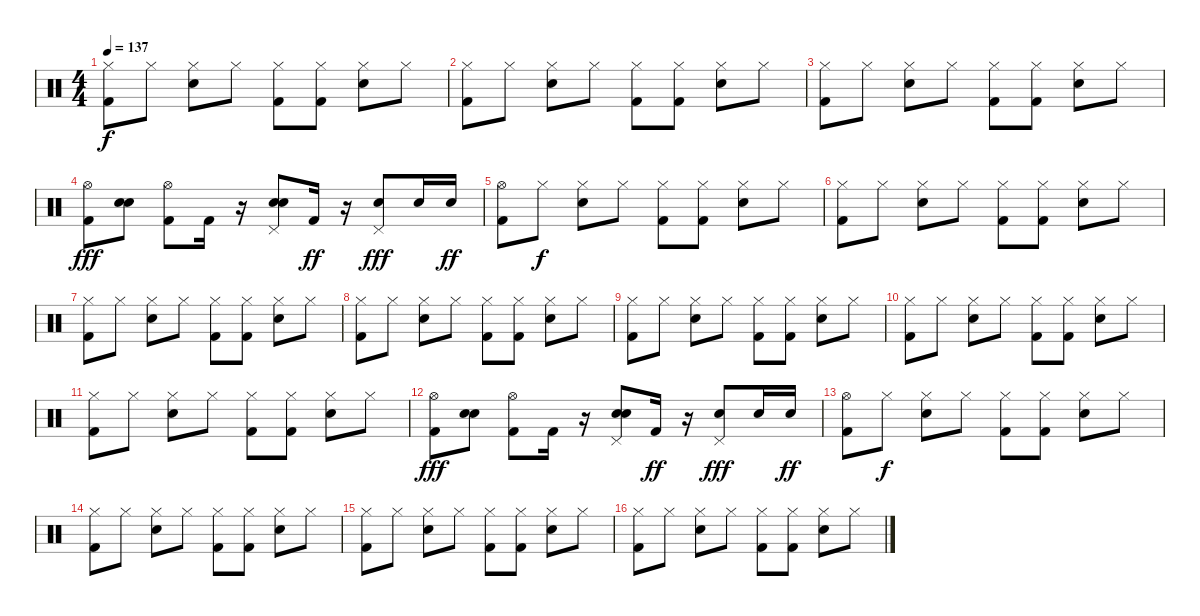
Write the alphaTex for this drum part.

\track "" {instrument percussion}
\staff {score}
\articulation defaults
\ts (4 4)
\tempo 137
\clef neutral
\ks c
("Kick (hit) 2" "Hi-Hat (closed)").8{dy f} "Hi-Hat (closed)".8 ("Hi-Hat (closed)" "Electric Snare (hit)").8 "Hi-Hat (closed)".8 ("Kick (hit) 2" "Hi-Hat (closed)").8 ("Kick (hit) 2" "Hi-Hat (closed)").8 ("Electric Snare (hit)" "Hi-Hat (closed)").8 "Hi-Hat (closed)".8 |
("Kick (hit) 2" "Hi-Hat (closed)").8 "Hi-Hat (closed)".8 ("Hi-Hat (closed)" "Electric Snare (hit)").8 "Hi-Hat (closed)".8 ("Kick (hit) 2" "Hi-Hat (closed)").8 ("Kick (hit) 2" "Hi-Hat (closed)").8 ("Electric Snare (hit)" "Hi-Hat (closed)").8 "Hi-Hat (closed)".8 |
("Kick (hit) 2" "Hi-Hat (closed)").8 "Hi-Hat (closed)".8 ("Hi-Hat (closed)" "Electric Snare (hit)").8 "Hi-Hat (closed)".8 ("Kick (hit) 2" "Hi-Hat (closed)").8 ("Kick (hit) 2" "Hi-Hat (closed)").8 ("Electric Snare (hit)" "Hi-Hat (closed)").8 "Hi-Hat (closed)".8 |
("Hi-Hat (open)" "Kick (hit) 2").8{dy fff} ("Electric Snare (hit)" "Electric Snare (hit)").8 ("Hi-Hat (open)" "Kick (hit) 2").8 "Kick (hit) 2".16 r.16 ("Electric Snare (hit)" "Pedal Hi-Hat (hit)" "Electric Snare (hit)").8 "Kick (hit) 2".16{dy ff} r.16 ("Pedal Hi-Hat (hit)" "Electric Snare (hit)").8{dy fff} "Electric Snare (hit)".16 "Electric Snare (hit)".16{dy ff} |
("Kick (hit) 2" "Hi-Hat (open)").8 "Hi-Hat (closed)".8{dy f} ("Hi-Hat (closed)" "Electric Snare (hit)").8 "Hi-Hat (closed)".8 ("Kick (hit) 2" "Hi-Hat (closed)").8 ("Kick (hit) 2" "Hi-Hat (closed)").8 ("Electric Snare (hit)" "Hi-Hat (closed)").8 "Hi-Hat (closed)".8 |
("Kick (hit) 2" "Hi-Hat (closed)").8 "Hi-Hat (closed)".8 ("Hi-Hat (closed)" "Electric Snare (hit)").8 "Hi-Hat (closed)".8 ("Kick (hit) 2" "Hi-Hat (closed)").8 ("Kick (hit) 2" "Hi-Hat (closed)").8 ("Electric Snare (hit)" "Hi-Hat (closed)").8 "Hi-Hat (closed)".8 |
("Kick (hit) 2" "Hi-Hat (closed)").8 "Hi-Hat (closed)".8 ("Hi-Hat (closed)" "Electric Snare (hit)").8 "Hi-Hat (closed)".8 ("Kick (hit) 2" "Hi-Hat (closed)").8 ("Kick (hit) 2" "Hi-Hat (closed)").8 ("Electric Snare (hit)" "Hi-Hat (closed)").8 "Hi-Hat (closed)".8 |
("Kick (hit) 2" "Hi-Hat (closed)").8 "Hi-Hat (closed)".8 ("Hi-Hat (closed)" "Electric Snare (hit)").8 "Hi-Hat (closed)".8 ("Kick (hit) 2" "Hi-Hat (closed)").8 ("Kick (hit) 2" "Hi-Hat (closed)").8 ("Electric Snare (hit)" "Hi-Hat (closed)").8 "Hi-Hat (closed)".8 |
("Kick (hit) 2" "Hi-Hat (closed)").8 "Hi-Hat (closed)".8 ("Hi-Hat (closed)" "Electric Snare (hit)").8 "Hi-Hat (closed)".8 ("Kick (hit) 2" "Hi-Hat (closed)").8 ("Kick (hit) 2" "Hi-Hat (closed)").8 ("Electric Snare (hit)" "Hi-Hat (closed)").8 "Hi-Hat (closed)".8 |
("Kick (hit) 2" "Hi-Hat (closed)").8 "Hi-Hat (closed)".8 ("Hi-Hat (closed)" "Electric Snare (hit)").8 "Hi-Hat (closed)".8 ("Kick (hit) 2" "Hi-Hat (closed)").8 ("Kick (hit) 2" "Hi-Hat (closed)").8 ("Electric Snare (hit)" "Hi-Hat (closed)").8 "Hi-Hat (closed)".8 |
("Kick (hit) 2" "Hi-Hat (closed)").8 "Hi-Hat (closed)".8 ("Hi-Hat (closed)" "Electric Snare (hit)").8 "Hi-Hat (closed)".8 ("Kick (hit) 2" "Hi-Hat (closed)").8 ("Kick (hit) 2" "Hi-Hat (closed)").8 ("Electric Snare (hit)" "Hi-Hat (closed)").8 "Hi-Hat (closed)".8 |
("Hi-Hat (open)" "Kick (hit) 2").8{dy fff} ("Electric Snare (hit)" "Electric Snare (hit)").8 ("Hi-Hat (open)" "Kick (hit) 2").8 "Kick (hit) 2".16 r.16 ("Electric Snare (hit)" "Pedal Hi-Hat (hit)" "Electric Snare (hit)").8 "Kick (hit) 2".16{dy ff} r.16 ("Pedal Hi-Hat (hit)" "Electric Snare (hit)").8{dy fff} "Electric Snare (hit)".16 "Electric Snare (hit)".16{dy ff} |
("Kick (hit) 2" "Hi-Hat (open)").8 "Hi-Hat (closed)".8{dy f} ("Hi-Hat (closed)" "Electric Snare (hit)").8 "Hi-Hat (closed)".8 ("Kick (hit) 2" "Hi-Hat (closed)").8 ("Kick (hit) 2" "Hi-Hat (closed)").8 ("Electric Snare (hit)" "Hi-Hat (closed)").8 "Hi-Hat (closed)".8 |
("Kick (hit) 2" "Hi-Hat (closed)").8 "Hi-Hat (closed)".8 ("Hi-Hat (closed)" "Electric Snare (hit)").8 "Hi-Hat (closed)".8 ("Kick (hit) 2" "Hi-Hat (closed)").8 ("Kick (hit) 2" "Hi-Hat (closed)").8 ("Electric Snare (hit)" "Hi-Hat (closed)").8 "Hi-Hat (closed)".8 |
("Kick (hit) 2" "Hi-Hat (closed)").8 "Hi-Hat (closed)".8 ("Hi-Hat (closed)" "Electric Snare (hit)").8 "Hi-Hat (closed)".8 ("Kick (hit) 2" "Hi-Hat (closed)").8 ("Kick (hit) 2" "Hi-Hat (closed)").8 ("Electric Snare (hit)" "Hi-Hat (closed)").8 "Hi-Hat (closed)".8 |
("Kick (hit) 2" "Hi-Hat (closed)").8 "Hi-Hat (closed)".8 ("Hi-Hat (closed)" "Electric Snare (hit)").8 "Hi-Hat (closed)".8 ("Kick (hit) 2" "Hi-Hat (closed)").8 ("Kick (hit) 2" "Hi-Hat (closed)").8 ("Electric Snare (hit)" "Hi-Hat (closed)").8 "Hi-Hat (closed)".8
